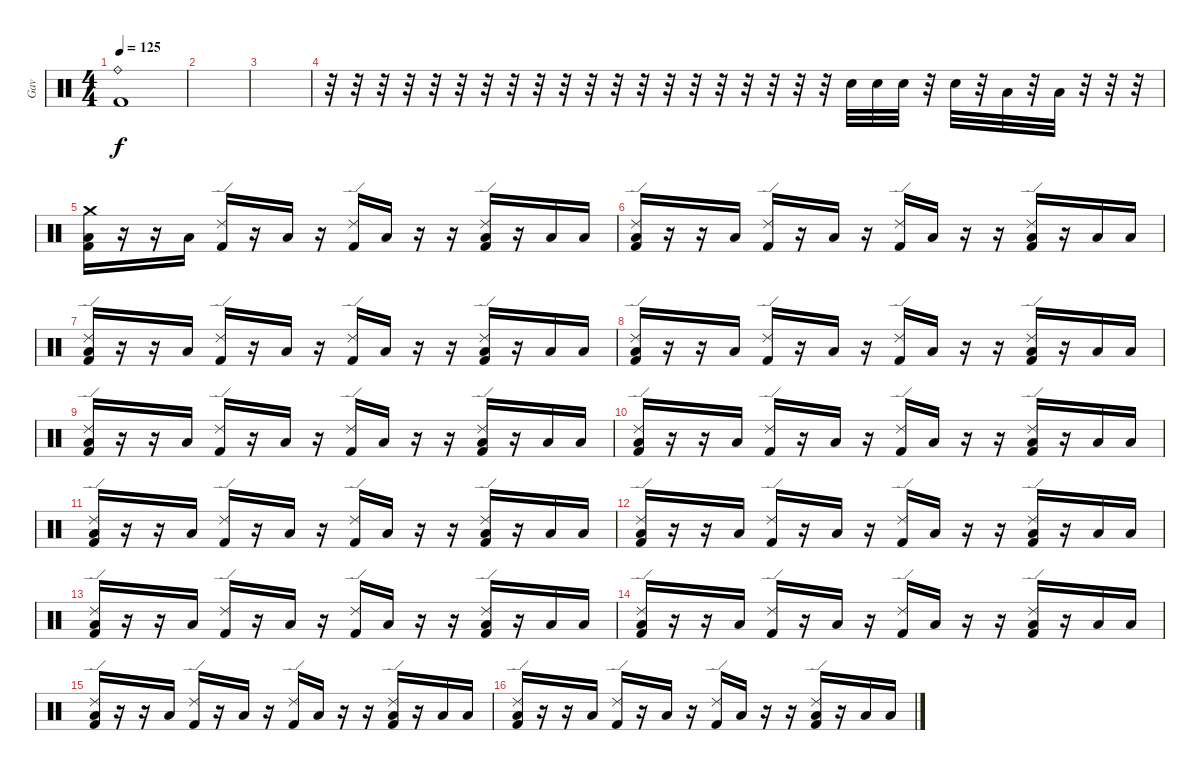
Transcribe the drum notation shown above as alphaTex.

\track ("Gav" "Gav") {instrument percussion}
\staff {score}
\articulation defaults
\ts (4 4)
\tempo 125
\clef neutral
\ks c
("Ride (bell)" "Kick (hit) 2").1{dy f} |
|
|
r.32 r.32 r.32 r.32 r.32 r.32 r.32 r.32 r.32 r.32 r.32 r.32 r.32 r.32 r.32 r.32 r.32 r.32 r.32 r.32 "Snare (hit) 2".32 "Snare (hit) 2".32 "Snare (hit) 2".32 r.32 "Snare (hit) 2".32 r.32 "Low Tom (hit)".32 r.32 "Low Floor Tom (hit)".32 r.32 r.32 r.32 |
("Crash medium (hit)" "Low Tom (hit)" "Kick (hit) 2").16 r.16 r.16 "Low Tom (hit)".16 ("Ride (edge) 2" "Kick (hit) 2").16 r.16 "Low Tom (hit)".16 r.16 ("Ride (edge) 2" "Kick (hit) 2").16 "Low Floor Tom (hit)".16 r.16 r.16 ("Ride (edge) 2" "Low Floor Tom (hit)" "Kick (hit) 2").16 r.16 "Low Tom (hit)".16 "Low Tom (hit)".16 |
("Ride (edge) 2" "Low Tom (hit)" "Kick (hit) 2").16 r.16 r.16 "Low Tom (hit)".16 ("Ride (edge) 2" "Kick (hit) 2").16 r.16 "Low Tom (hit)".16 r.16 ("Ride (edge) 2" "Kick (hit) 2").16 "Low Floor Tom (hit)".16 r.16 r.16 ("Ride (edge) 2" "Low Floor Tom (hit)" "Kick (hit) 2").16 r.16 "Low Floor Tom (hit)".16 "Low Floor Tom (hit)".16 |
("Ride (edge) 2" "Low Tom (hit)" "Kick (hit) 2").16 r.16 r.16 "Low Tom (hit)".16 ("Ride (edge) 2" "Kick (hit) 2").16 r.16 "Low Tom (hit)".16 r.16 ("Ride (edge) 2" "Kick (hit) 2").16 "Low Floor Tom (hit)".16 r.16 r.16 ("Ride (edge) 2" "Low Floor Tom (hit)" "Kick (hit) 2").16 r.16 "Low Tom (hit)".16 "Low Tom (hit)".16 |
("Ride (edge) 2" "Low Tom (hit)" "Kick (hit) 2").16 r.16 r.16 "Low Tom (hit)".16 ("Ride (edge) 2" "Kick (hit) 2").16 r.16 "Low Tom (hit)".16 r.16 ("Ride (edge) 2" "Kick (hit) 2").16 "Low Floor Tom (hit)".16 r.16 r.16 ("Ride (edge) 2" "Low Floor Tom (hit)" "Kick (hit) 2").16 r.16 "Low Floor Tom (hit)".16 "Low Floor Tom (hit)".16 |
("Ride (edge) 2" "Low Tom (hit)" "Kick (hit) 2").16 r.16 r.16 "Low Tom (hit)".16 ("Ride (edge) 2" "Kick (hit) 2").16 r.16 "Low Tom (hit)".16 r.16 ("Ride (edge) 2" "Kick (hit) 2").16 "Low Floor Tom (hit)".16 r.16 r.16 ("Ride (edge) 2" "Low Floor Tom (hit)" "Kick (hit) 2").16 r.16 "Low Floor Tom (hit)".16 "Low Floor Tom (hit)".16 |
("Ride (edge) 2" "Low Tom (hit)" "Kick (hit) 2").16 r.16 r.16 "Low Tom (hit)".16 ("Ride (edge) 2" "Kick (hit) 2").16 r.16 "Low Tom (hit)".16 r.16 ("Ride (edge) 2" "Kick (hit) 2").16 "Low Floor Tom (hit)".16 r.16 r.16 ("Ride (edge) 2" "Low Floor Tom (hit)" "Kick (hit) 2").16 r.16 "Low Tom (hit)".16 "Low Tom (hit)".16 |
("Ride (edge) 2" "Low Tom (hit)" "Kick (hit) 2").16 r.16 r.16 "Low Tom (hit)".16 ("Ride (edge) 2" "Kick (hit) 2").16 r.16 "Low Tom (hit)".16 r.16 ("Ride (edge) 2" "Kick (hit) 2").16 "Low Floor Tom (hit)".16 r.16 r.16 ("Ride (edge) 2" "Low Floor Tom (hit)" "Kick (hit) 2").16 r.16 "Low Floor Tom (hit)".16 "Low Floor Tom (hit)".16 |
("Ride (edge) 2" "Low Tom (hit)" "Kick (hit) 2").16 r.16 r.16 "Low Tom (hit)".16 ("Ride (edge) 2" "Kick (hit) 2").16 r.16 "Low Tom (hit)".16 r.16 ("Ride (edge) 2" "Kick (hit) 2").16 "Low Floor Tom (hit)".16 r.16 r.16 ("Ride (edge) 2" "Low Floor Tom (hit)" "Kick (hit) 2").16 r.16 "Low Tom (hit)".16 "Low Tom (hit)".16 |
("Ride (edge) 2" "Low Tom (hit)" "Kick (hit) 2").16 r.16 r.16 "Low Tom (hit)".16 ("Ride (edge) 2" "Kick (hit) 2").16 r.16 "Low Tom (hit)".16 r.16 ("Ride (edge) 2" "Kick (hit) 2").16 "Low Floor Tom (hit)".16 r.16 r.16 ("Ride (edge) 2" "Low Floor Tom (hit)" "Kick (hit) 2").16 r.16 "Low Floor Tom (hit)".16 "Low Floor Tom (hit)".16 |
("Ride (edge) 2" "Low Tom (hit)" "Kick (hit) 2").16 r.16 r.16 "Low Tom (hit)".16 ("Ride (edge) 2" "Kick (hit) 2").16 r.16 "Low Tom (hit)".16 r.16 ("Ride (edge) 2" "Kick (hit) 2").16 "Low Floor Tom (hit)".16 r.16 r.16 ("Ride (edge) 2" "Low Floor Tom (hit)" "Kick (hit) 2").16 r.16 "Low Tom (hit)".16 "Low Tom (hit)".16 |
("Ride (edge) 2" "Low Tom (hit)" "Kick (hit) 2").16 r.16 r.16 "Low Tom (hit)".16 ("Ride (edge) 2" "Kick (hit) 2").16 r.16 "Low Tom (hit)".16 r.16 ("Ride (edge) 2" "Kick (hit) 2").16 "Low Floor Tom (hit)".16 r.16 r.16 ("Ride (edge) 2" "Low Floor Tom (hit)" "Kick (hit) 2").16 r.16 "Low Floor Tom (hit)".16 "Low Floor Tom (hit)".16 |
("Ride (edge) 2" "Low Tom (hit)" "Kick (hit) 2").16 r.16 r.16 "Low Tom (hit)".16 ("Ride (edge) 2" "Kick (hit) 2").16 r.16 "Low Tom (hit)".16 r.16 ("Ride (edge) 2" "Kick (hit) 2").16 "Low Floor Tom (hit)".16 r.16 r.16 ("Ride (edge) 2" "Low Floor Tom (hit)" "Kick (hit) 2").16 r.16 "Low Tom (hit)".16 "Low Tom (hit)".16
